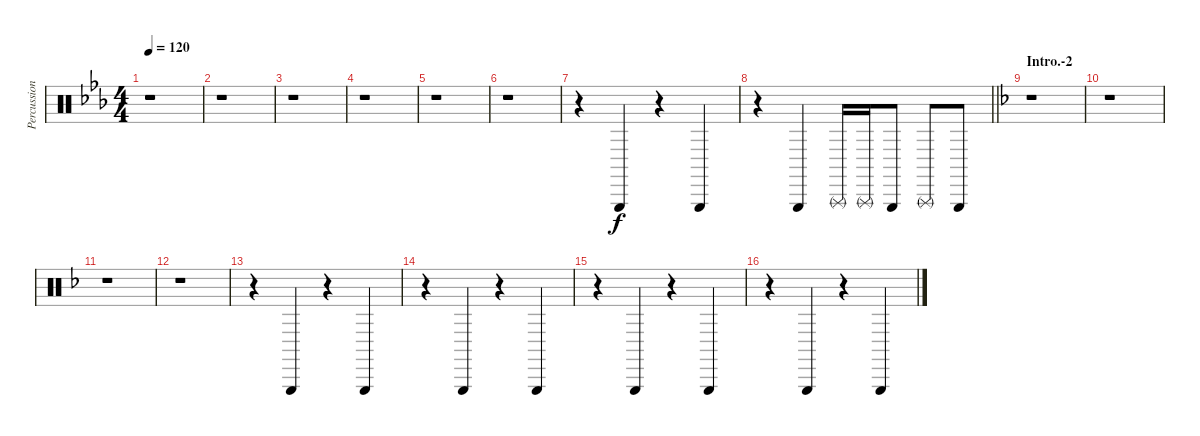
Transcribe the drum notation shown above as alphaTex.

\track ("Percussion" "Percussion") {instrument percussion}
\staff {score}
\articulation defaults
\ts (4 4)
\tempo 120
\clef neutral
\ks eb
r.1{dy f} |
r.1 |
r.1 |
r.1 |
r.1 |
r.1 |
r.4 "Triangle (hit)".4 r.4 "Triangle (hit)".4 |
\barLineRight lightlight
r.4 "Triangle (hit)".4 "Triangle (rnute)".16 "Triangle (rnute)".16 "Triangle (hit)".8 "Triangle (rnute)".8 "Triangle (hit)".8 |
\section ("" "Intro.-2")
\ks f
r.1 |
r.1 |
r.1 |
r.1 |
r.4 "Triangle (hit)".4 r.4 "Triangle (hit)".4 |
r.4 "Triangle (hit)".4 r.4 "Triangle (hit)".4 |
r.4 "Triangle (hit)".4 r.4 "Triangle (hit)".4 |
r.4 "Triangle (hit)".4 r.4 "Triangle (hit)".4
